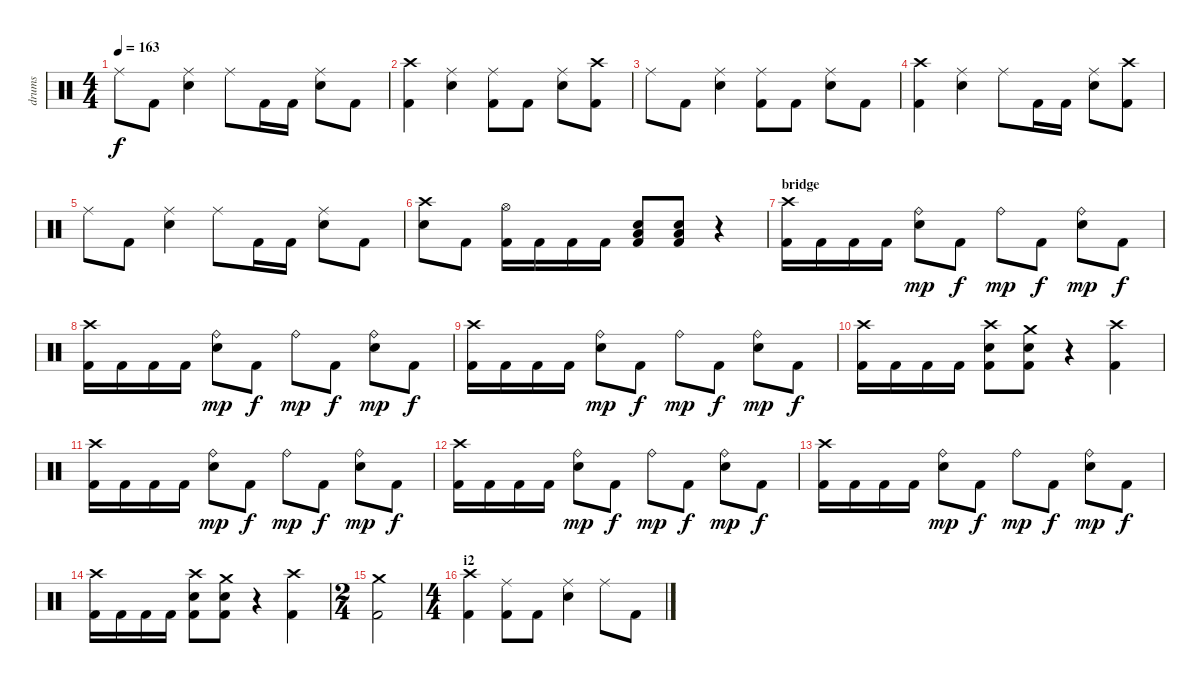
\track ("drums" "drums") {instrument percussion}
\staff {score}
\articulation defaults
\ts (4 4)
\tempo 163
\clef neutral
\ks c "Ride (middle)".8{dy f} "Kick (hit) 2".8
("Ride (middle)" "Electric Snare (hit)").4 "Ride (middle)".8 "Kick (hit) 2".16 "Kick (hit) 2".16 ("Ride (middle)" "Electric Snare (hit)").8 "Kick (hit) 2".8 |
("Crash high (hit)" "Kick (hit) 2").4 ("Ride (middle)" "Electric Snare (hit)").4 ("Ride (middle)" "Kick (hit) 2").8 "Kick (hit) 2".8 ("Ride (middle)" "Electric Snare (hit)").8 ("Crash high (hit)" "Kick (hit) 2").8 |
"Ride (middle)".8 "Kick (hit) 2".8 ("Ride (middle)" "Electric Snare (hit)").4 ("Ride (middle)" "Kick (hit) 2").8 "Kick (hit) 2".8 ("Ride (middle)" "Electric Snare (hit)").8 "Kick (hit) 2".8 |
("Crash high (hit)" "Kick (hit) 2").4 ("Ride (middle)" "Electric Snare (hit)").4 "Ride (middle)".8 "Kick (hit) 2".16 "Kick (hit) 2".16 ("Ride (middle)" "Electric Snare (hit)").8 ("Crash high (hit)" "Kick (hit) 2").8 |
"Ride (middle)".8 "Kick (hit) 2".8 ("Ride (middle)" "Electric Snare (hit)").4 "Ride (middle)".8 "Kick (hit) 2".16 "Kick (hit) 2".16 ("Ride (middle)" "Electric Snare (hit)").8 "Kick (hit) 2".8 |
("Crash high (hit)" "Electric Snare (hit)").8 "Kick (hit) 2".8 ("Hi-Hat (open)" "Kick (hit) 2").16 "Kick (hit) 2".16 "Kick (hit) 2".16 "Kick (hit) 2".16 ("Low Floor Tom (hit)" "Electric Snare (hit)" "Kick (hit) 2").8 ("Low Floor Tom (hit)" "Electric Snare (hit)" "Kick (hit) 2").8 r.4 |
\section ("" "bridge")
("Crash high (hit)" "Kick (hit) 2").16 "Kick (hit) 2".16 "Kick (hit) 2".16 "Kick (hit) 2".16 ("Ride (bell)" "Electric Snare (hit)").8{dy mp} "Kick (hit) 2".8{dy f} "Ride (bell)".8{dy mp} "Kick (hit) 2".8{dy f} ("Ride (bell)" "Electric Snare (hit)").8{dy mp} "Kick (hit) 2".8{dy f} |
("Crash high (hit)" "Kick (hit) 2").16 "Kick (hit) 2".16 "Kick (hit) 2".16 "Kick (hit) 2".16 ("Ride (bell)" "Electric Snare (hit)").8{dy mp} "Kick (hit) 2".8{dy f} "Ride (bell)".8{dy mp} "Kick (hit) 2".8{dy f} ("Ride (bell)" "Electric Snare (hit)").8{dy mp} "Kick (hit) 2".8{dy f} |
("Crash high (hit)" "Kick (hit) 2").16 "Kick (hit) 2".16 "Kick (hit) 2".16 "Kick (hit) 2".16 ("Ride (bell)" "Electric Snare (hit)").8{dy mp} "Kick (hit) 2".8{dy f} "Ride (bell)".8{dy mp} "Kick (hit) 2".8{dy f} ("Ride (bell)" "Electric Snare (hit)").8{dy mp} "Kick (hit) 2".8{dy f} |
("Crash high (hit)" "Kick (hit) 2").16 "Kick (hit) 2".16 "Kick (hit) 2".16 "Kick (hit) 2".16 ("Crash high (hit)" "Electric Snare (hit)" "Kick (hit) 2").8 ("Crash medium (hit)" "Electric Snare (hit)" "Kick (hit) 2").8 r.4 ("Crash high (hit)" "Kick (hit) 2").4 |
("Crash high (hit)" "Kick (hit) 2").16 "Kick (hit) 2".16 "Kick (hit) 2".16 "Kick (hit) 2".16 ("Ride (bell)" "Electric Snare (hit)").8{dy mp} "Kick (hit) 2".8{dy f} "Ride (bell)".8{dy mp} "Kick (hit) 2".8{dy f} ("Ride (bell)" "Electric Snare (hit)").8{dy mp} "Kick (hit) 2".8{dy f} |
("Crash high (hit)" "Kick (hit) 2").16 "Kick (hit) 2".16 "Kick (hit) 2".16 "Kick (hit) 2".16 ("Ride (bell)" "Electric Snare (hit)").8{dy mp} "Kick (hit) 2".8{dy f} "Ride (bell)".8{dy mp} "Kick (hit) 2".8{dy f} ("Ride (bell)" "Electric Snare (hit)").8{dy mp} "Kick (hit) 2".8{dy f} |
("Crash high (hit)" "Kick (hit) 2").16 "Kick (hit) 2".16 "Kick (hit) 2".16 "Kick (hit) 2".16 ("Ride (bell)" "Electric Snare (hit)").8{dy mp} "Kick (hit) 2".8{dy f} "Ride (bell)".8{dy mp} "Kick (hit) 2".8{dy f} ("Ride (bell)" "Electric Snare (hit)").8{dy mp} "Kick (hit) 2".8{dy f} |
("Crash high (hit)" "Kick (hit) 2").16 "Kick (hit) 2".16 "Kick (hit) 2".16 "Kick (hit) 2".16 ("Crash high (hit)" "Electric Snare (hit)" "Kick (hit) 2").8 ("Crash medium (hit)" "Electric Snare (hit)" "Kick (hit) 2").8 r.4 ("Crash high (hit)" "Kick (hit) 2").4 |
\ts (2 4)
("Crash medium (hit)" "Kick (hit) 2").2 |
\ts (4 4)
\section ("" "i2")
("Crash high (hit)" "Kick (hit) 2").4 ("Ride (middle)" "Kick (hit) 2").8 "Kick (hit) 2".8 ("Ride (middle)" "Electric Snare (hit)").4 "Ride (middle)".8 "Kick (hit) 2".8
